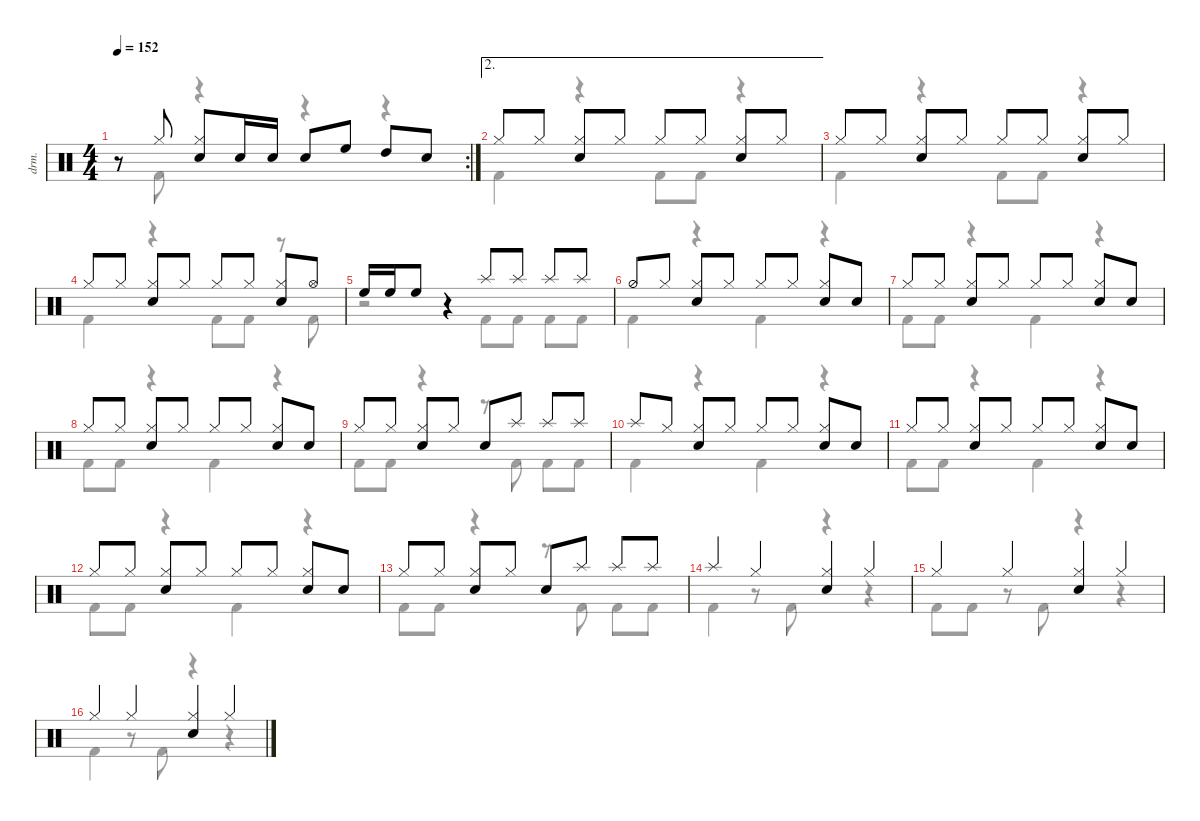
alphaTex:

\defaultSystemsLayout 4
\hideDynamics
\bracketExtendMode nobrackets
\track ("Drumkit" "drm.") {instrument percussion}
\staff {score}
\articulation defaults
\voice
\rc 2
\ts (4 4)
\tempo 152
\clef neutral
\ks c
r.8{dy mf beam Up} "Hi-Hat (closed)".8{beam Up} ("Hi-Hat (closed)" "Snare (hit) 2").8{beam Up} "Snare (hit) 2".16{beam Up} "Snare (hit) 2".16{beam Up} "Snare (hit) 2".8{beam Up} "High Floor Tom (hit)".8{beam Up} "High Tom (hit)".8{beam Up} "Snare (hit) 2".8{beam Up} |
\ae 2 "Hi-Hat (closed)".8{beam Up} "Hi-Hat (closed)".8{beam Up}
("Hi-Hat (closed)" "Snare (hit) 2").8{beam Up} "Hi-Hat (closed)".8{beam Up} "Hi-Hat (closed)".8{beam Up} "Hi-Hat (closed)".8{beam Up} ("Hi-Hat (closed)" "Snare (hit) 2").8{beam Up} "Hi-Hat (closed)".8{beam Up} |
"Hi-Hat (closed)".8{beam Up} "Hi-Hat (closed)".8{beam Up} ("Hi-Hat (closed)" "Snare (hit) 2").8{beam Up} "Hi-Hat (closed)".8{beam Up} "Hi-Hat (closed)".8{beam Up} "Hi-Hat (closed)".8{beam Up} ("Hi-Hat (closed)" "Snare (hit) 2").8{beam Up} "Hi-Hat (closed)".8{beam Up} |
"Hi-Hat (closed)".8{beam Up} "Hi-Hat (closed)".8{beam Up} ("Hi-Hat (closed)" "Snare (hit) 2").8{beam Up} "Hi-Hat (closed)".8{beam Up} "Hi-Hat (closed)".8{beam Up} "Hi-Hat (closed)".8{beam Up} ("Hi-Hat (closed)" "Snare (hit) 2").8{beam Up} "Hi-Hat (open)".8{beam Up} |
"High Floor Tom (hit)".16{beam Up} "High Floor Tom (hit)".16{beam Up} "High Floor Tom (hit)".8{beam Up} r.4{beam Up} "Splash (hit)".8{beam Up} "Splash (hit)".8{beam Up} "Splash (hit)".8{beam Up} "Splash (hit)".8{beam Up} |
"Hi-Hat (half)".8{beam Up} "Hi-Hat (closed)".8{beam Up} ("Hi-Hat (closed)" "Snare (hit) 2").8{beam Up} "Hi-Hat (closed)".8{beam Up} "Hi-Hat (closed)".8{beam Up} "Hi-Hat (closed)".8{beam Up} ("Hi-Hat (closed)" "Snare (hit) 2").8{beam Up} "Snare (hit) 2".8{beam Up} |
"Hi-Hat (closed)".8{beam Up} "Hi-Hat (closed)".8{beam Up} ("Hi-Hat (closed)" "Snare (hit) 2").8{beam Up} "Hi-Hat (closed)".8{beam Up} "Hi-Hat (closed)".8{beam Up} "Hi-Hat (closed)".8{beam Up} ("Hi-Hat (closed)" "Snare (hit) 2").8{beam Up} "Snare (hit) 2".8{beam Up} |
"Hi-Hat (closed)".8{beam Up} "Hi-Hat (closed)".8{beam Up} ("Hi-Hat (closed)" "Snare (hit) 2").8{beam Up} "Hi-Hat (closed)".8{beam Up} "Hi-Hat (closed)".8{beam Up} "Hi-Hat (closed)".8{beam Up} ("Hi-Hat (closed)" "Snare (hit) 2").8{beam Up} "Snare (hit) 2".8{beam Up} |
"Hi-Hat (closed)".8{beam Up} "Hi-Hat (closed)".8{beam Up} ("Hi-Hat (closed)" "Snare (hit) 2").8{beam Up} "Hi-Hat (closed)".8{beam Up} "Snare (hit) 2".8{beam Up} "Splash (hit)".8{beam Up} "Splash (hit)".8{beam Up} "Splash (hit)".8{beam Up} |
"Splash (hit)".8{beam Up} "Hi-Hat (closed)".8{beam Up} ("Hi-Hat (closed)" "Snare (hit) 2").8{beam Up} "Hi-Hat (closed)".8{beam Up} "Hi-Hat (closed)".8{beam Up} "Hi-Hat (closed)".8{beam Up} ("Hi-Hat (closed)" "Snare (hit) 2").8{beam Up} "Snare (hit) 2".8{beam Up} |
"Hi-Hat (closed)".8{beam Up} "Hi-Hat (closed)".8{beam Up} ("Hi-Hat (closed)" "Snare (hit) 2").8{beam Up} "Hi-Hat (closed)".8{beam Up} "Hi-Hat (closed)".8{beam Up} "Hi-Hat (closed)".8{beam Up} ("Hi-Hat (closed)" "Snare (hit) 2").8{beam Up} "Snare (hit) 2".8{beam Up} |
"Hi-Hat (closed)".8{beam Up} "Hi-Hat (closed)".8{beam Up} ("Hi-Hat (closed)" "Snare (hit) 2").8{beam Up} "Hi-Hat (closed)".8{beam Up} "Hi-Hat (closed)".8{beam Up} "Hi-Hat (closed)".8{beam Up} ("Hi-Hat (closed)" "Snare (hit) 2").8{beam Up} "Snare (hit) 2".8{beam Up} |
"Hi-Hat (closed)".8{beam Up} "Hi-Hat (closed)".8{beam Up} ("Hi-Hat (closed)" "Snare (hit) 2").8{beam Up} "Hi-Hat (closed)".8{beam Up} "Snare (hit) 2".8{beam Up} "Splash (hit)".8{beam Up} "Splash (hit)".8{beam Up} "Splash (hit)".8{beam Up} |
"Splash (hit)".4{beam Up} "Hi-Hat (closed)".4{beam Up} ("Hi-Hat (closed)" "Snare (hit) 2").4{beam Up} "Hi-Hat (closed)".4{beam Up} |
"Hi-Hat (closed)".4{beam Up} "Hi-Hat (closed)".4{beam Up} ("Hi-Hat (closed)" "Snare (hit) 2").4{beam Up} "Hi-Hat (closed)".4{beam Up} |
"Hi-Hat (closed)".4{beam Up} "Hi-Hat (closed)".4{beam Up} ("Hi-Hat (closed)" "Snare (hit) 2").4{beam Up} "Hi-Hat (closed)".4{beam Up}
\voice
\clef neutral
\ottava regular
\simile none
\ks c
r.8{dy mf beam Down} "Kick (hit) 2".8{beam Down} r.4{beam Down} r.4{beam Down} r.4{beam Down} |
"Kick (hit) 2".4{beam Down} r.4{beam Down} "Kick (hit) 2".8{beam Down} "Kick (hit) 2".8{beam Down} r.4{beam Down} |
"Kick (hit) 2".4{beam Down} r.4{beam Down} "Kick (hit) 2".8{beam Down} "Kick (hit) 2".8{beam Down} r.4{beam Down} |
"Kick (hit) 2".4{beam Down} r.4{beam Down} "Kick (hit) 2".8{beam Down} "Kick (hit) 2".8{beam Down} r.8{beam Down} "Kick (hit) 2".8{beam Down} |
r.2{beam Down} "Kick (hit) 2".8{beam Down} "Kick (hit) 2".8{beam Down} "Kick (hit) 2".8{beam Down} "Kick (hit) 2".8{beam Down} |
"Kick (hit) 2".4{beam Down} r.4{beam Down} "Kick (hit) 2".4{beam Down} r.4{beam Down} |
"Kick (hit) 2".8{beam Down} "Kick (hit) 2".8{beam Down} r.4{beam Down} "Kick (hit) 2".4{beam Down} r.4{beam Down} |
"Kick (hit) 2".8{beam Down} "Kick (hit) 2".8{beam Down} r.4{beam Down} "Kick (hit) 2".4{beam Down} r.4{beam Down} |
"Kick (hit) 2".8{beam Down} "Kick (hit) 2".8{beam Down} r.4{beam Down} r.8{beam Down} "Kick (hit) 2".8{beam Down} "Kick (hit) 2".8{beam Down} "Kick (hit) 2".8{beam Down} |
"Kick (hit) 2".4{beam Down} r.4{beam Down} "Kick (hit) 2".4{beam Down} r.4{beam Down} |
"Kick (hit) 2".8{beam Down} "Kick (hit) 2".8{beam Down} r.4{beam Down} "Kick (hit) 2".4{beam Down} r.4{beam Down} |
"Kick (hit) 2".8{beam Down} "Kick (hit) 2".8{beam Down} r.4{beam Down} "Kick (hit) 2".4{beam Down} r.4{beam Down} |
"Kick (hit) 2".8{beam Down} "Kick (hit) 2".8{beam Down} r.4{beam Down} r.8{beam Down} "Kick (hit) 2".8{beam Down} "Kick (hit) 2".8{beam Down} "Kick (hit) 2".8{beam Down} |
"Kick (hit) 2".4{beam Down} r.8{beam Down} "Kick (hit) 2".8{beam Down} r.4{beam Down} r.4{beam Down} |
"Kick (hit) 2".8{beam Down} "Kick (hit) 2".8{beam Down} r.8{beam Down} "Kick (hit) 2".8{beam Down} r.4{beam Down} r.4{beam Down} |
"Kick (hit) 2".4{beam Down} r.8{beam Down} "Kick (hit) 2".8{beam Down} r.4{beam Down} r.4{beam Down}
